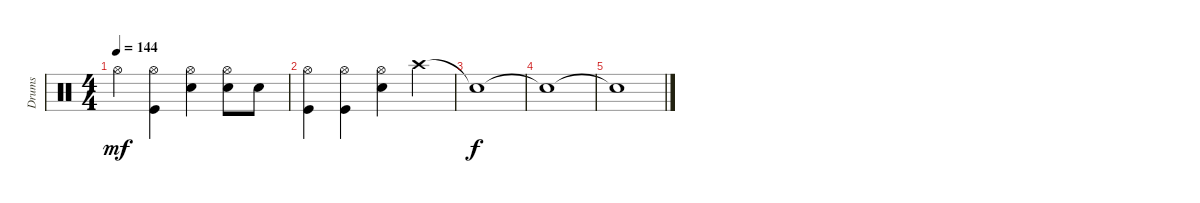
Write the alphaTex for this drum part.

\track ("Drums               " "Drums     ") {instrument percussion}
\staff {score}
\articulation defaults
\ts (4 4)
\tempo 144
\clef neutral
\ks c "Hi-Hat (open)".4{dy mf}
("Kick (hit)" "Hi-Hat (open)").4 ("Hi-Hat (open)" "Snare (hit) 2").4 ("Hi-Hat (open)" "Snare (hit) 2").8 "Snare (hit) 2".8 |
("Kick (hit)" "Hi-Hat (open)").4 ("Kick (hit)" "Hi-Hat (open)").4 ("Snare (hit) 2" "Hi-Hat (open)").4 "Crash high (hit)".4 |
"Snare (hit)"{t}.1{dy f} |
"Snare (hit)"{t}.1 |
"Snare (hit)"{t}.1
